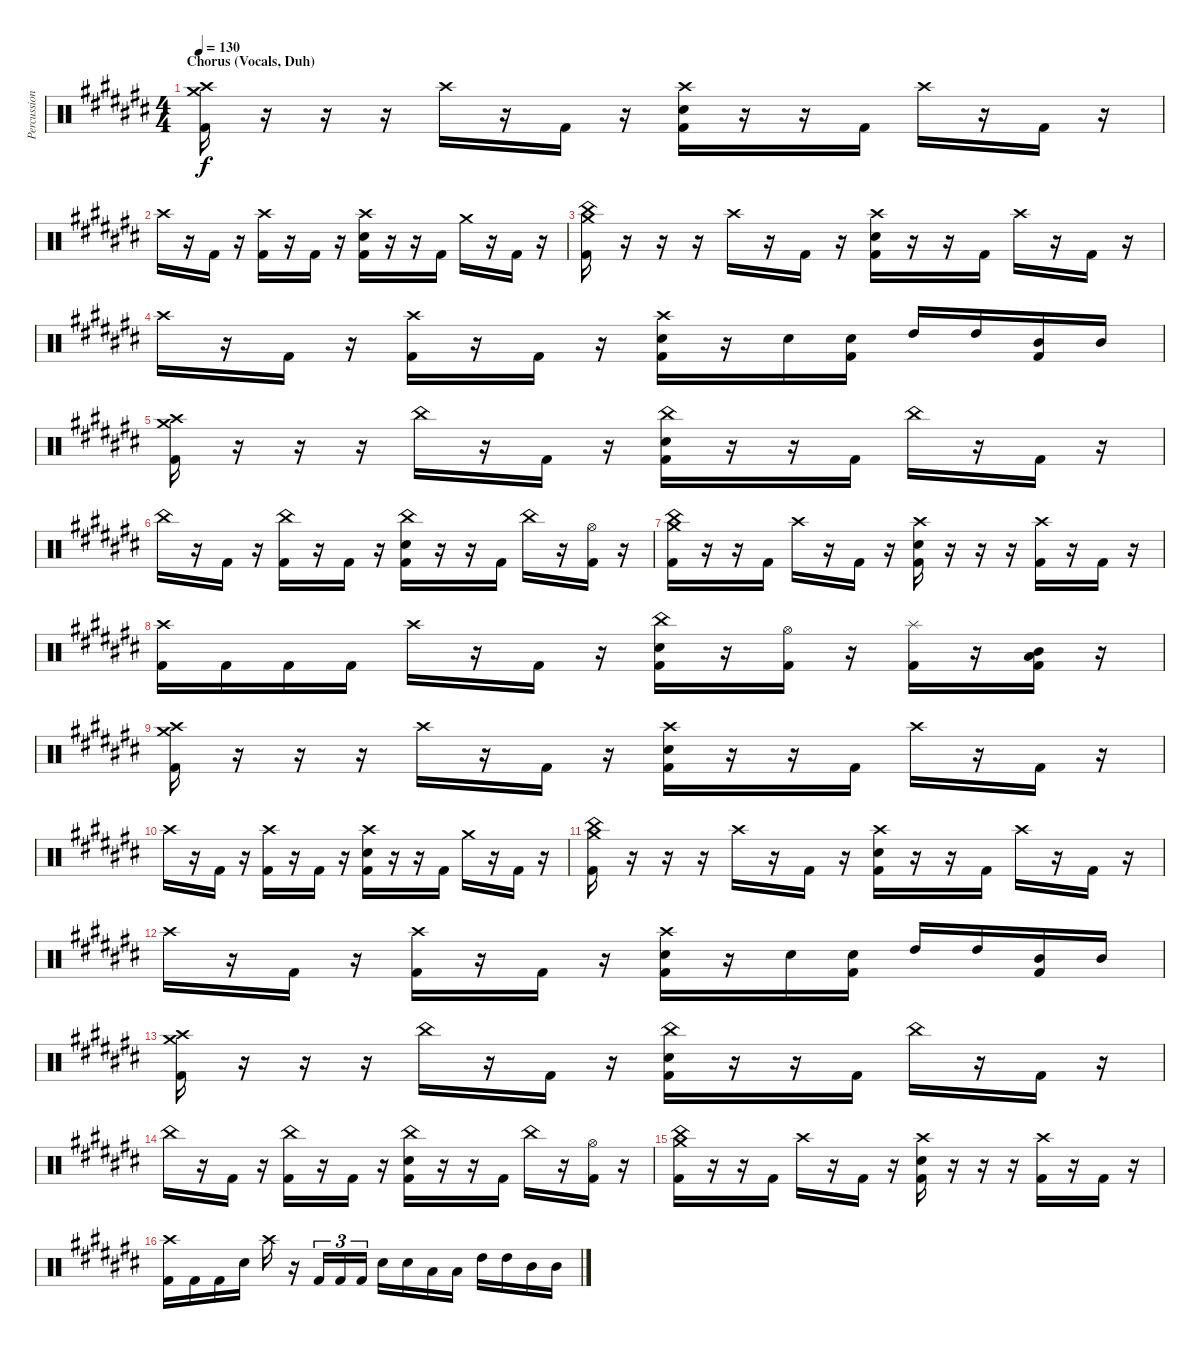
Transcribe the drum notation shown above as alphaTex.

\track ("Percussion" "Percussion") {instrument percussion}
\staff {score}
\articulation defaults
\ts (4 4)
\section ("" "Chorus (Vocals, Duh)")
\tempo 130
\clef neutral
\ks a#minor
("Crash high (hit)" "Crash medium (hit)" "Kick (hit) 2").16{dy f} r.16 r.16 r.16 "Crash high (hit)".16 r.16 "Kick (hit) 2".16 r.16 ("Crash high (hit)" "Electric Snare (hit)" "Kick (hit) 2").16 r.16 r.16 "Kick (hit) 2".16 "Crash high (hit)".16 r.16 "Kick (hit) 2".16 r.16 |
"Crash high (hit)".16 r.16 "Kick (hit) 2".16 r.16 ("Crash high (hit)" "Kick (hit) 2").16 r.16 "Kick (hit) 2".16 r.16 ("Crash high (hit)" "Electric Snare (hit)" "Kick (hit) 2").16 r.16 r.16 "Kick (hit) 2".16 "Crash medium (hit)".16 r.16 "Kick (hit) 2".16 r.16 |
("China (hit)" "Crash medium (hit)" "Kick (hit) 2").16 r.16 r.16 r.16 "Crash high (hit)".16 r.16 "Kick (hit) 2".16 r.16 ("Crash high (hit)" "Electric Snare (hit)" "Kick (hit) 2").16 r.16 r.16 "Kick (hit) 2".16 "Crash high (hit)".16 r.16 "Kick (hit) 2".16 r.16 |
"Crash high (hit)".16 r.16 "Kick (hit) 2".16 r.16 ("Crash high (hit)" "Kick (hit) 2").16 r.16 "Kick (hit) 2".16 r.16 ("Crash high (hit)" "Electric Snare (hit)" "Kick (hit) 2").16 r.16 "Electric Snare (hit)".16 ("Electric Snare (hit)" "Kick (hit) 2").16 "High Tom (hit)".16 "High Tom (hit)".16 ("Mid Tom (hit)" "Kick (hit) 2").16 "Mid Tom (hit)".16 |
("Crash high (hit)" "Crash medium (hit)" "Kick (hit) 2").16 r.16 r.16 r.16 "China (hit)".16 r.16 "Kick (hit) 2".16 r.16 ("China (hit)" "Electric Snare (hit)" "Kick (hit) 2").16 r.16 r.16 "Kick (hit) 2".16 "China (hit)".16 r.16 "Kick (hit) 2".16 r.16 |
"China (hit)".16 r.16 "Kick (hit) 2".16 r.16 ("China (hit)" "Kick (hit) 2").16 r.16 "Kick (hit) 2".16 r.16 ("China (hit)" "Electric Snare (hit)" "Kick (hit) 2").16 r.16 r.16 "Kick (hit) 2".16 "China (hit)".16 r.16 ("Hi-Hat (open)" "Kick (hit) 2").16 r.16 |
("China (hit)" "Crash medium (hit)" "Kick (hit) 2").16 r.16 r.16 "Kick (hit) 2".16 "Crash high (hit)".16 r.16 "Kick (hit) 2".16 r.16 ("Crash high (hit)" "Electric Snare (hit)" "Kick (hit) 2").16 r.16 r.16 r.16 ("Crash high (hit)" "Kick (hit) 2").16 r.16 "Kick (hit) 2".16 r.16 |
("Crash high (hit)" "Kick (hit) 2").16 "Kick (hit) 2".16 "Kick (hit) 2".16 "Kick (hit) 2".16 "Crash high (hit)".16 r.16 "Kick (hit) 2".16 r.16 ("China (hit)" "Electric Snare (hit)" "Kick (hit) 2").16 r.16 ("Hi-Hat (open)" "Kick (hit) 2").16 r.16 ("Splash (hit)" "Kick (hit) 2").16 r.16 ("Mid Tom (hit)" "Low Tom (hit)" "Kick (hit) 2").16 r.16 |
("Crash high (hit)" "Crash medium (hit)" "Kick (hit) 2").16 r.16 r.16 r.16 "Crash high (hit)".16 r.16 "Kick (hit) 2".16 r.16 ("Crash high (hit)" "Electric Snare (hit)" "Kick (hit) 2").16 r.16 r.16 "Kick (hit) 2".16 "Crash high (hit)".16 r.16 "Kick (hit) 2".16 r.16 |
"Crash high (hit)".16 r.16 "Kick (hit) 2".16 r.16 ("Crash high (hit)" "Kick (hit) 2").16 r.16 "Kick (hit) 2".16 r.16 ("Crash high (hit)" "Electric Snare (hit)" "Kick (hit) 2").16 r.16 r.16 "Kick (hit) 2".16 "Crash medium (hit)".16 r.16 "Kick (hit) 2".16 r.16 |
("China (hit)" "Crash medium (hit)" "Kick (hit) 2").16 r.16 r.16 r.16 "Crash high (hit)".16 r.16 "Kick (hit) 2".16 r.16 ("Crash high (hit)" "Electric Snare (hit)" "Kick (hit) 2").16 r.16 r.16 "Kick (hit) 2".16 "Crash high (hit)".16 r.16 "Kick (hit) 2".16 r.16 |
"Crash high (hit)".16 r.16 "Kick (hit) 2".16 r.16 ("Crash high (hit)" "Kick (hit) 2").16 r.16 "Kick (hit) 2".16 r.16 ("Crash high (hit)" "Electric Snare (hit)" "Kick (hit) 2").16 r.16 "Electric Snare (hit)".16 ("Electric Snare (hit)" "Kick (hit) 2").16 "High Tom (hit)".16 "High Tom (hit)".16 ("Mid Tom (hit)" "Kick (hit) 2").16 "Mid Tom (hit)".16 |
("Crash high (hit)" "Crash medium (hit)" "Kick (hit) 2").16 r.16 r.16 r.16 "China (hit)".16 r.16 "Kick (hit) 2".16 r.16 ("China (hit)" "Electric Snare (hit)" "Kick (hit) 2").16 r.16 r.16 "Kick (hit) 2".16 "China (hit)".16 r.16 "Kick (hit) 2".16 r.16 |
"China (hit)".16 r.16 "Kick (hit) 2".16 r.16 ("China (hit)" "Kick (hit) 2").16 r.16 "Kick (hit) 2".16 r.16 ("China (hit)" "Electric Snare (hit)" "Kick (hit) 2").16 r.16 r.16 "Kick (hit) 2".16 "China (hit)".16 r.16 ("Hi-Hat (open)" "Kick (hit) 2").16 r.16 |
("China (hit)" "Crash medium (hit)" "Kick (hit) 2").16 r.16 r.16 "Kick (hit) 2".16 "Crash high (hit)".16 r.16 "Kick (hit) 2".16 r.16 ("Crash high (hit)" "Electric Snare (hit)" "Kick (hit) 2").16 r.16 r.16 r.16 ("Crash high (hit)" "Kick (hit) 2").16 r.16 "Kick (hit) 2".16 r.16 |
("Crash high (hit)" "Kick (hit) 2").16 "Kick (hit) 2".16 "Kick (hit) 2".16 "Electric Snare (hit)".16 "Crash high (hit)".16 r.16 "Kick (hit) 2".16{tu (3 2)} "Kick (hit) 2".16{tu (3 2)} "Kick (hit) 2".16{tu (3 2)} "Electric Snare (hit)".16 "Electric Snare (hit)".16 "Low Tom (hit)".16 "Low Tom (hit)".16 "High Tom (hit)".16 "High Tom (hit)".16 "Mid Tom (hit)".16 "Mid Tom (hit)".16
